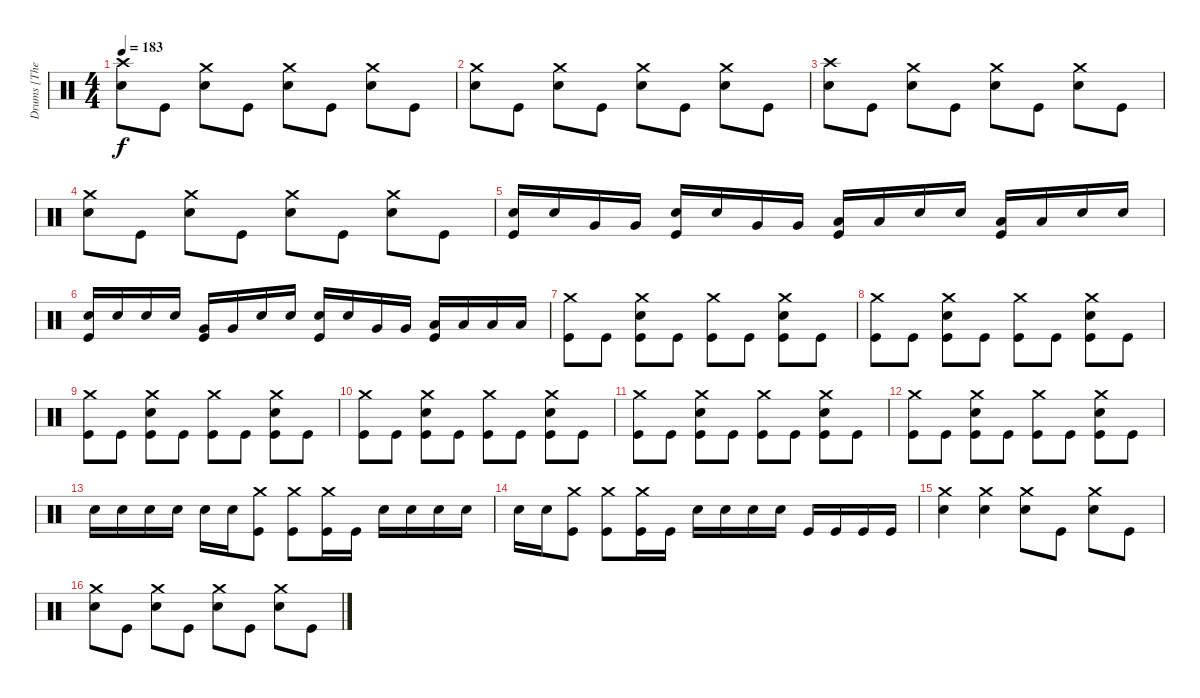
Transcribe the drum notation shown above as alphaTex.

\track ("Drums [The Rev]" "Drums [The") {instrument percussion}
\staff {score}
\articulation defaults
\ts (4 4)
\tempo 183
\clef neutral
\ks c
("Crash high (hit)" "Snare (hit) 2").8{dy f} "Kick (hit)".8 ("Crash medium (hit)" "Snare (hit) 2").8 "Kick (hit)".8 ("Crash medium (hit)" "Snare (hit) 2").8 "Kick (hit)".8 ("Crash medium (hit)" "Snare (hit) 2").8 "Kick (hit)".8 |
("Crash medium (hit)" "Snare (hit) 2").8 "Kick (hit)".8 ("Crash medium (hit)" "Snare (hit) 2").8 "Kick (hit)".8 ("Crash medium (hit)" "Snare (hit) 2").8 "Kick (hit)".8 ("Crash medium (hit)" "Snare (hit) 2").8 "Kick (hit)".8 |
("Crash high (hit)" "Snare (hit) 2").8 "Kick (hit)".8 ("Crash medium (hit)" "Snare (hit) 2").8 "Kick (hit)".8 ("Crash medium (hit)" "Snare (hit) 2").8 "Kick (hit)".8 ("Crash medium (hit)" "Snare (hit) 2").8 "Kick (hit)".8 |
("Crash medium (hit)" "Snare (hit) 2").8 "Kick (hit)".8 ("Crash medium (hit)" "Snare (hit) 2").8 "Kick (hit)".8 ("Crash medium (hit)" "Snare (hit) 2").8 "Kick (hit)".8 ("Crash medium (hit)" "Snare (hit) 2").8 "Kick (hit)".8 |
("Snare (hit) 2" "Kick (hit)").16 "Snare (hit) 2".16 "Very Low Tom (hit)".16 "Very Low Tom (hit)".16 ("Snare (hit) 2" "Kick (hit)").16 "Snare (hit) 2".16 "Very Low Tom (hit)".16 "Very Low Tom (hit)".16 ("Low Floor Tom (hit)" "Kick (hit)").16 "Low Floor Tom (hit)".16 "Snare (hit) 2".16 "Snare (hit) 2".16 ("Low Floor Tom (hit)" "Kick (hit)").16 "Low Floor Tom (hit)".16 "Snare (hit) 2".16 "Snare (hit) 2".16 |
("Snare (hit) 2" "Kick (hit)").16 "Snare (hit) 2".16 "Snare (hit) 2".16 "Snare (hit) 2".16 ("Very Low Tom (hit)" "Kick (hit)").16 "Very Low Tom (hit)".16 "Snare (hit) 2".16 "Snare (hit) 2".16 ("Snare (hit) 2" "Kick (hit)").16 "Snare (hit) 2".16 "Very Low Tom (hit)".16 "Very Low Tom (hit)".16 ("Low Floor Tom (hit)" "Kick (hit)").16 "Low Floor Tom (hit)".16 "Low Floor Tom (hit)".16 "Low Floor Tom (hit)".16 |
("Crash medium (hit)" "Kick (hit)").8 "Kick (hit)".8 ("Crash medium (hit)" "Snare (hit) 2" "Kick (hit)").8 "Kick (hit)".8 ("Crash medium (hit)" "Kick (hit)").8 "Kick (hit)".8 ("Crash medium (hit)" "Snare (hit) 2" "Kick (hit)").8 "Kick (hit)".8 |
("Crash medium (hit)" "Kick (hit)").8 "Kick (hit)".8 ("Crash medium (hit)" "Snare (hit) 2" "Kick (hit)").8 "Kick (hit)".8 ("Crash medium (hit)" "Kick (hit)").8 "Kick (hit)".8 ("Crash medium (hit)" "Snare (hit) 2" "Kick (hit)").8 "Kick (hit)".8 |
("Crash medium (hit)" "Kick (hit)").8 "Kick (hit)".8 ("Crash medium (hit)" "Snare (hit) 2" "Kick (hit)").8 "Kick (hit)".8 ("Crash medium (hit)" "Kick (hit)").8 "Kick (hit)".8 ("Crash medium (hit)" "Snare (hit) 2" "Kick (hit)").8 "Kick (hit)".8 |
("Crash medium (hit)" "Kick (hit)").8 "Kick (hit)".8 ("Crash medium (hit)" "Snare (hit) 2" "Kick (hit)").8 "Kick (hit)".8 ("Crash medium (hit)" "Kick (hit)").8 "Kick (hit)".8 ("Crash medium (hit)" "Snare (hit) 2" "Kick (hit)").8 "Kick (hit)".8 |
("Crash medium (hit)" "Kick (hit)").8 "Kick (hit)".8 ("Crash medium (hit)" "Snare (hit) 2" "Kick (hit)").8 "Kick (hit)".8 ("Crash medium (hit)" "Kick (hit)").8 "Kick (hit)".8 ("Crash medium (hit)" "Snare (hit) 2" "Kick (hit)").8 "Kick (hit)".8 |
("Crash medium (hit)" "Kick (hit)").8 "Kick (hit)".8 ("Crash medium (hit)" "Snare (hit) 2" "Kick (hit)").8 "Kick (hit)".8 ("Crash medium (hit)" "Kick (hit)").8 "Kick (hit)".8 ("Crash medium (hit)" "Snare (hit) 2" "Kick (hit)").8 "Kick (hit)".8 |
"Snare (hit) 2".16 "Snare (hit) 2".16 "Snare (hit) 2".16 "Snare (hit) 2".16 "Snare (hit) 2".16 "Snare (hit) 2".16 ("Crash medium (hit)" "Kick (hit)").8 ("Crash medium (hit)" "Kick (hit)").8 ("Crash medium (hit)" "Kick (hit)").16 "Kick (hit)".16 "Snare (hit) 2".16 "Snare (hit) 2".16 "Snare (hit) 2".16 "Snare (hit) 2".16 |
"Snare (hit) 2".16 "Snare (hit) 2".16 ("Crash medium (hit)" "Kick (hit)").8 ("Crash medium (hit)" "Kick (hit)").8 ("Crash medium (hit)" "Kick (hit)").16 "Kick (hit)".16 "Snare (hit) 2".16 "Snare (hit) 2".16 "Snare (hit) 2".16 "Snare (hit) 2".16 "Kick (hit)".16 "Kick (hit)".16 "Kick (hit)".16 "Kick (hit)".16 |
("Crash medium (hit)" "Snare (hit) 2").4 ("Crash medium (hit)" "Snare (hit) 2").4 ("Crash medium (hit)" "Snare (hit) 2").8 "Kick (hit)".8 ("Crash medium (hit)" "Snare (hit) 2").8 "Kick (hit)".8 |
("Crash medium (hit)" "Snare (hit) 2").8 "Kick (hit)".8 ("Crash medium (hit)" "Snare (hit) 2").8 "Kick (hit)".8 ("Crash medium (hit)" "Snare (hit) 2").8 "Kick (hit)".8 ("Crash medium (hit)" "Snare (hit) 2").8 "Kick (hit)".8
